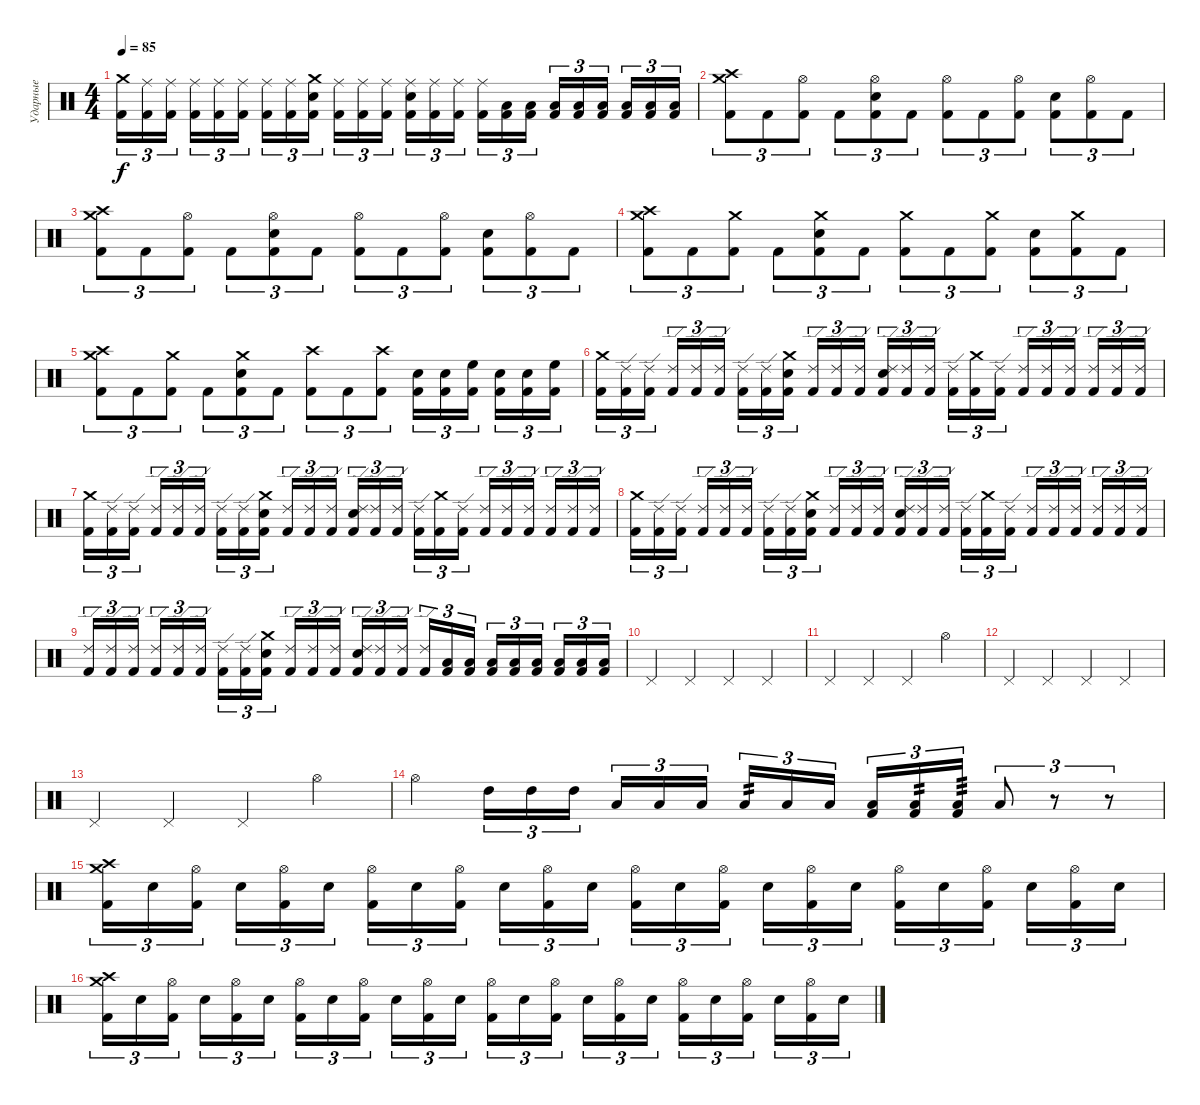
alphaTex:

\track ("Ударные" "Ударные") {mute instrument percussion}
\staff {score}
\articulation defaults
\ts (4 4)
\tempo 85
\clef neutral
\ks c
("Crash medium (hit)" "Kick (hit) 2").16{tu (3 2) dy f} ("Ride (middle)" "Kick (hit) 2").16{tu (3 2)} ("Ride (middle)" "Kick (hit) 2").16{tu (3 2) beam splitsecondary} ("Ride (middle)" "Kick (hit) 2").16{tu (3 2)} ("Ride (middle)" "Kick (hit) 2").16{tu (3 2)} ("Ride (middle)" "Kick (hit) 2").16{tu (3 2)} ("Ride (middle)" "Kick (hit) 2").16{tu (3 2)} ("Ride (middle)" "Kick (hit) 2").16{tu (3 2)} ("Crash medium (hit)" "Electric Snare (hit)" "Kick (hit) 2").16{tu (3 2) beam splitsecondary} ("Ride (middle)" "Kick (hit) 2").16{tu (3 2)} ("Ride (middle)" "Kick (hit) 2").16{tu (3 2)} ("Ride (middle)" "Kick (hit) 2").16{tu (3 2)} ("Ride (middle)" "Electric Snare (hit)" "Kick (hit) 2").16{tu (3 2)} ("Ride (middle)" "Kick (hit) 2").16{tu (3 2)} ("Ride (middle)" "Kick (hit) 2").16{tu (3 2) beam splitsecondary} ("Ride (middle)" "Kick (hit) 2").16{tu (3 2)} ("Low Tom (hit)" "Kick (hit) 2").16{tu (3 2)} ("Low Tom (hit)" "Kick (hit) 2").16{tu (3 2)} ("Low Tom (hit)" "Kick (hit) 2").16{tu (3 2)} ("Low Floor Tom (hit)" "Kick (hit) 2").16{tu (3 2)} ("Low Floor Tom (hit)" "Kick (hit) 2").16{tu (3 2) beam splitsecondary} ("Low Floor Tom (hit)" "Kick (hit) 2").16{tu (3 2)} ("Low Floor Tom (hit)" "Kick (hit) 2").16{tu (3 2)} ("Low Floor Tom (hit)" "Kick (hit) 2").16{tu (3 2)} |
("Crash high (hit)" "Crash medium (hit)" "Kick (hit) 2").8{tu (3 2)} "Kick (hit) 2".8{tu (3 2)} ("Hi-Hat (open)" "Kick (hit) 2").8{tu (3 2)} "Kick (hit) 2".8{tu (3 2)} ("Hi-Hat (open)" "Electric Snare (hit)" "Kick (hit) 2").8{tu (3 2)} "Kick (hit) 2".8{tu (3 2)} ("Hi-Hat (open)" "Kick (hit) 2").8{tu (3 2)} "Kick (hit) 2".8{tu (3 2)} ("Hi-Hat (open)" "Kick (hit) 2").8{tu (3 2)} ("Electric Snare (hit)" "Kick (hit) 2").8{tu (3 2)} ("Hi-Hat (open)" "Kick (hit) 2").8{tu (3 2)} "Kick (hit) 2".8{tu (3 2)} |
("Crash high (hit)" "Crash medium (hit)" "Kick (hit) 2").8{tu (3 2)} "Kick (hit) 2".8{tu (3 2)} ("Hi-Hat (open)" "Kick (hit) 2").8{tu (3 2)} "Kick (hit) 2".8{tu (3 2)} ("Hi-Hat (open)" "Electric Snare (hit)" "Kick (hit) 2").8{tu (3 2)} "Kick (hit) 2".8{tu (3 2)} ("Hi-Hat (open)" "Kick (hit) 2").8{tu (3 2)} "Kick (hit) 2".8{tu (3 2)} ("Hi-Hat (open)" "Kick (hit) 2").8{tu (3 2)} ("Electric Snare (hit)" "Kick (hit) 2").8{tu (3 2)} ("Hi-Hat (open)" "Kick (hit) 2").8{tu (3 2)} "Kick (hit) 2".8{tu (3 2)} |
("Crash high (hit)" "Crash medium (hit)" "Kick (hit) 2").8{tu (3 2)} "Kick (hit) 2".8{tu (3 2)} ("Crash medium (hit)" "Kick (hit) 2").8{tu (3 2)} "Kick (hit) 2".8{tu (3 2)} ("Crash medium (hit)" "Electric Snare (hit)" "Kick (hit) 2").8{tu (3 2)} "Kick (hit) 2".8{tu (3 2)} ("Crash medium (hit)" "Kick (hit) 2").8{tu (3 2)} "Kick (hit) 2".8{tu (3 2)} ("Crash medium (hit)" "Kick (hit) 2").8{tu (3 2)} ("Electric Snare (hit)" "Kick (hit) 2").8{tu (3 2)} ("Crash medium (hit)" "Kick (hit) 2").8{tu (3 2)} "Kick (hit) 2".8{tu (3 2)} |
("Crash high (hit)" "Crash medium (hit)" "Kick (hit) 2").8{tu (3 2)} "Kick (hit) 2".8{tu (3 2)} ("Crash medium (hit)" "Kick (hit) 2").8{tu (3 2)} "Kick (hit) 2".8{tu (3 2)} ("Crash medium (hit)" "Electric Snare (hit)" "Kick (hit) 2").8{tu (3 2)} "Kick (hit) 2".8{tu (3 2)} ("Crash high (hit)" "Kick (hit) 2").8{tu (3 2)} "Kick (hit) 2".8{tu (3 2)} ("Crash high (hit)" "Kick (hit) 2").8{tu (3 2)} ("Electric Snare (hit)" "Kick (hit) 2").16{tu (3 2)} ("Electric Snare (hit)" "Kick (hit) 2").16{tu (3 2)} ("High Floor Tom (hit)" "Kick (hit) 2").16{tu (3 2) beam splitsecondary} ("Electric Snare (hit)" "Kick (hit) 2").16{tu (3 2)} ("Electric Snare (hit)" "Kick (hit) 2").16{tu (3 2)} ("High Floor Tom (hit)" "Kick (hit) 2").16{tu (3 2)} |
("Crash medium (hit)" "Kick (hit) 2").16{tu (3 2)} ("Ride (edge) 2" "Kick (hit) 2").16{tu (3 2)} ("Ride (edge) 2" "Kick (hit) 2").16{tu (3 2) beam splitsecondary} ("Ride (edge) 2" "Kick (hit) 2").16{tu (3 2)} ("Ride (edge) 2" "Kick (hit) 2").16{tu (3 2)} ("Ride (edge) 2" "Kick (hit) 2").16{tu (3 2)} ("Ride (edge) 2" "Kick (hit) 2").16{tu (3 2)} ("Ride (edge) 2" "Kick (hit) 2").16{tu (3 2)} ("Crash medium (hit)" "Electric Snare (hit)" "Kick (hit) 2").16{tu (3 2) beam splitsecondary} ("Ride (edge) 2" "Kick (hit) 2").16{tu (3 2)} ("Ride (edge) 2" "Kick (hit) 2").16{tu (3 2)} ("Ride (edge) 2" "Kick (hit) 2").16{tu (3 2)} ("Ride (edge) 2" "Electric Snare (hit)" "Kick (hit) 2").16{tu (3 2)} ("Ride (edge) 2" "Kick (hit) 2").16{tu (3 2)} ("Ride (edge) 2" "Kick (hit) 2").16{tu (3 2) beam splitsecondary} ("Ride (edge) 2" "Kick (hit) 2").16{tu (3 2)} ("Crash medium (hit)" "Kick (hit) 2").16{tu (3 2)} ("Ride (edge) 2" "Kick (hit) 2").16{tu (3 2)} ("Ride (edge) 2" "Kick (hit) 2").16{tu (3 2)} ("Ride (edge) 2" "Kick (hit) 2").16{tu (3 2)} ("Ride (edge) 2" "Kick (hit) 2").16{tu (3 2) beam splitsecondary} ("Ride (edge) 2" "Kick (hit) 2").16{tu (3 2)} ("Ride (edge) 2" "Kick (hit) 2").16{tu (3 2)} ("Ride (edge) 2" "Kick (hit) 2").16{tu (3 2)} |
("Crash medium (hit)" "Kick (hit) 2").16{tu (3 2)} ("Ride (edge) 2" "Kick (hit) 2").16{tu (3 2)} ("Ride (edge) 2" "Kick (hit) 2").16{tu (3 2) beam splitsecondary} ("Ride (edge) 2" "Kick (hit) 2").16{tu (3 2)} ("Ride (edge) 2" "Kick (hit) 2").16{tu (3 2)} ("Ride (edge) 2" "Kick (hit) 2").16{tu (3 2)} ("Ride (edge) 2" "Kick (hit) 2").16{tu (3 2)} ("Ride (edge) 2" "Kick (hit) 2").16{tu (3 2)} ("Crash medium (hit)" "Electric Snare (hit)" "Kick (hit) 2").16{tu (3 2) beam splitsecondary} ("Ride (edge) 2" "Kick (hit) 2").16{tu (3 2)} ("Ride (edge) 2" "Kick (hit) 2").16{tu (3 2)} ("Ride (edge) 2" "Kick (hit) 2").16{tu (3 2)} ("Ride (edge) 2" "Electric Snare (hit)" "Kick (hit) 2").16{tu (3 2)} ("Ride (edge) 2" "Kick (hit) 2").16{tu (3 2)} ("Ride (edge) 2" "Kick (hit) 2").16{tu (3 2) beam splitsecondary} ("Ride (edge) 2" "Kick (hit) 2").16{tu (3 2)} ("Crash medium (hit)" "Kick (hit) 2").16{tu (3 2)} ("Ride (edge) 2" "Kick (hit) 2").16{tu (3 2)} ("Ride (edge) 2" "Kick (hit) 2").16{tu (3 2)} ("Ride (edge) 2" "Kick (hit) 2").16{tu (3 2)} ("Ride (edge) 2" "Kick (hit) 2").16{tu (3 2) beam splitsecondary} ("Ride (edge) 2" "Kick (hit) 2").16{tu (3 2)} ("Ride (edge) 2" "Kick (hit) 2").16{tu (3 2)} ("Ride (edge) 2" "Kick (hit) 2").16{tu (3 2)} |
("Crash medium (hit)" "Kick (hit) 2").16{tu (3 2)} ("Ride (edge) 2" "Kick (hit) 2").16{tu (3 2)} ("Ride (edge) 2" "Kick (hit) 2").16{tu (3 2) beam splitsecondary} ("Ride (edge) 2" "Kick (hit) 2").16{tu (3 2)} ("Ride (edge) 2" "Kick (hit) 2").16{tu (3 2)} ("Ride (edge) 2" "Kick (hit) 2").16{tu (3 2)} ("Ride (edge) 2" "Kick (hit) 2").16{tu (3 2)} ("Ride (edge) 2" "Kick (hit) 2").16{tu (3 2)} ("Crash medium (hit)" "Electric Snare (hit)" "Kick (hit) 2").16{tu (3 2) beam splitsecondary} ("Ride (edge) 2" "Kick (hit) 2").16{tu (3 2)} ("Ride (edge) 2" "Kick (hit) 2").16{tu (3 2)} ("Ride (edge) 2" "Kick (hit) 2").16{tu (3 2)} ("Ride (edge) 2" "Electric Snare (hit)" "Kick (hit) 2").16{tu (3 2)} ("Ride (edge) 2" "Kick (hit) 2").16{tu (3 2)} ("Ride (edge) 2" "Kick (hit) 2").16{tu (3 2) beam splitsecondary} ("Ride (edge) 2" "Kick (hit) 2").16{tu (3 2)} ("Crash medium (hit)" "Kick (hit) 2").16{tu (3 2)} ("Ride (edge) 2" "Kick (hit) 2").16{tu (3 2)} ("Ride (edge) 2" "Kick (hit) 2").16{tu (3 2)} ("Ride (edge) 2" "Kick (hit) 2").16{tu (3 2)} ("Ride (edge) 2" "Kick (hit) 2").16{tu (3 2) beam splitsecondary} ("Ride (edge) 2" "Kick (hit) 2").16{tu (3 2)} ("Ride (edge) 2" "Kick (hit) 2").16{tu (3 2)} ("Ride (edge) 2" "Kick (hit) 2").16{tu (3 2)} |
("Ride (edge) 2" "Kick (hit) 2").16{tu (3 2)} ("Ride (edge) 2" "Kick (hit) 2").16{tu (3 2)} ("Ride (edge) 2" "Kick (hit) 2").16{tu (3 2) beam splitsecondary} ("Ride (edge) 2" "Kick (hit) 2").16{tu (3 2)} ("Ride (edge) 2" "Kick (hit) 2").16{tu (3 2)} ("Ride (edge) 2" "Kick (hit) 2").16{tu (3 2)} ("Ride (edge) 2" "Kick (hit) 2").16{tu (3 2)} ("Ride (edge) 2" "Kick (hit) 2").16{tu (3 2)} ("Crash medium (hit)" "Electric Snare (hit)" "Kick (hit) 2").16{tu (3 2) beam splitsecondary} ("Ride (edge) 2" "Kick (hit) 2").16{tu (3 2)} ("Ride (edge) 2" "Kick (hit) 2").16{tu (3 2)} ("Ride (edge) 2" "Kick (hit) 2").16{tu (3 2)} ("Ride (edge) 2" "Electric Snare (hit)" "Kick (hit) 2").16{tu (3 2)} ("Ride (edge) 2" "Kick (hit) 2").16{tu (3 2)} ("Ride (edge) 2" "Kick (hit) 2").16{tu (3 2) beam splitsecondary} ("Ride (edge) 2" "Kick (hit) 2").16{tu (3 2)} ("Low Tom (hit)" "Kick (hit) 2").16{tu (3 2)} ("Low Tom (hit)" "Kick (hit) 2").16{tu (3 2)} ("Low Tom (hit)" "Kick (hit) 2").16{tu (3 2)} ("Low Floor Tom (hit)" "Kick (hit) 2").16{tu (3 2)} ("Low Floor Tom (hit)" "Kick (hit) 2").16{tu (3 2) beam splitsecondary} ("Low Floor Tom (hit)" "Kick (hit) 2").16{tu (3 2)} ("Low Floor Tom (hit)" "Kick (hit) 2").16{tu (3 2)} ("Low Floor Tom (hit)" "Kick (hit) 2").16{tu (3 2)} |
"Pedal Hi-Hat (hit)".4 "Pedal Hi-Hat (hit)".4 "Pedal Hi-Hat (hit)".4 "Pedal Hi-Hat (hit)".4 |
"Pedal Hi-Hat (hit)".4 "Pedal Hi-Hat (hit)".4 "Pedal Hi-Hat (hit)".4 "Hi-Hat (open)".4 |
"Pedal Hi-Hat (hit)".4 "Pedal Hi-Hat (hit)".4 "Pedal Hi-Hat (hit)".4 "Pedal Hi-Hat (hit)".4 |
"Pedal Hi-Hat (hit)".4 "Pedal Hi-Hat (hit)".4 "Pedal Hi-Hat (hit)".4 "Hi-Hat (open)".4 |
"Hi-Hat (open)".4 "High Tom (hit)".16{tu (3 2)} "High Tom (hit)".16{tu (3 2)} "High Tom (hit)".16{tu (3 2) beam splitsecondary} "Low Tom (hit)".16{tu (3 2)} "Low Tom (hit)".16{tu (3 2)} "Low Tom (hit)".16{tu (3 2)} "Low Floor Tom (hit)".16{tu (3 2) tp 2} "Low Floor Tom (hit)".16{tu (3 2)} "Low Floor Tom (hit)".16{tu (3 2) beam splitsecondary} ("Low Floor Tom (hit)" "Kick (hit) 2").16{tu (3 2)} ("Low Floor Tom (hit)" "Kick (hit) 2").16{tu (3 2) tp 2} ("Low Floor Tom (hit)" "Kick (hit) 2").16{tu (3 2) tp 3} "Low Floor Tom (hit)".8{tu (3 2)} r.8{tu (3 2)} r.8{tu (3 2)} |
("Crash high (hit)" "Crash medium (hit)" "Kick (hit) 2").16{tu (3 2)} "Electric Snare (hit)".16{tu (3 2)} ("Hi-Hat (open)" "Kick (hit) 2").16{tu (3 2) beam splitsecondary} "Electric Snare (hit)".16{tu (3 2)} ("Hi-Hat (open)" "Kick (hit) 2").16{tu (3 2)} "Electric Snare (hit)".16{tu (3 2)} ("Hi-Hat (open)" "Kick (hit) 2").16{tu (3 2)} "Electric Snare (hit)".16{tu (3 2)} ("Hi-Hat (open)" "Kick (hit) 2").16{tu (3 2) beam splitsecondary} "Electric Snare (hit)".16{tu (3 2)} ("Hi-Hat (open)" "Kick (hit) 2").16{tu (3 2)} "Electric Snare (hit)".16{tu (3 2)} ("Hi-Hat (open)" "Kick (hit) 2").16{tu (3 2)} "Electric Snare (hit)".16{tu (3 2)} ("Hi-Hat (open)" "Kick (hit) 2").16{tu (3 2) beam splitsecondary} "Electric Snare (hit)".16{tu (3 2)} ("Hi-Hat (open)" "Kick (hit) 2").16{tu (3 2)} "Electric Snare (hit)".16{tu (3 2)} ("Hi-Hat (open)" "Kick (hit) 2").16{tu (3 2)} "Electric Snare (hit)".16{tu (3 2)} ("Hi-Hat (open)" "Kick (hit) 2").16{tu (3 2) beam splitsecondary} "Electric Snare (hit)".16{tu (3 2)} ("Hi-Hat (open)" "Kick (hit) 2").16{tu (3 2)} "Electric Snare (hit)".16{tu (3 2)} |
("Crash high (hit)" "Crash medium (hit)" "Kick (hit) 2").16{tu (3 2)} "Electric Snare (hit)".16{tu (3 2)} ("Hi-Hat (open)" "Kick (hit) 2").16{tu (3 2) beam splitsecondary} "Electric Snare (hit)".16{tu (3 2)} ("Hi-Hat (open)" "Kick (hit) 2").16{tu (3 2)} "Electric Snare (hit)".16{tu (3 2)} ("Hi-Hat (open)" "Kick (hit) 2").16{tu (3 2)} "Electric Snare (hit)".16{tu (3 2)} ("Hi-Hat (open)" "Kick (hit) 2").16{tu (3 2) beam splitsecondary} "Electric Snare (hit)".16{tu (3 2)} ("Hi-Hat (open)" "Kick (hit) 2").16{tu (3 2)} "Electric Snare (hit)".16{tu (3 2)} ("Hi-Hat (open)" "Kick (hit) 2").16{tu (3 2)} "Electric Snare (hit)".16{tu (3 2)} ("Hi-Hat (open)" "Kick (hit) 2").16{tu (3 2) beam splitsecondary} "Electric Snare (hit)".16{tu (3 2)} ("Hi-Hat (open)" "Kick (hit) 2").16{tu (3 2)} "Electric Snare (hit)".16{tu (3 2)} ("Hi-Hat (open)" "Kick (hit) 2").16{tu (3 2)} "Electric Snare (hit)".16{tu (3 2)} ("Hi-Hat (open)" "Kick (hit) 2").16{tu (3 2) beam splitsecondary} "Electric Snare (hit)".16{tu (3 2)} ("Hi-Hat (open)" "Kick (hit) 2").16{tu (3 2)} "Electric Snare (hit)".16{tu (3 2)}
